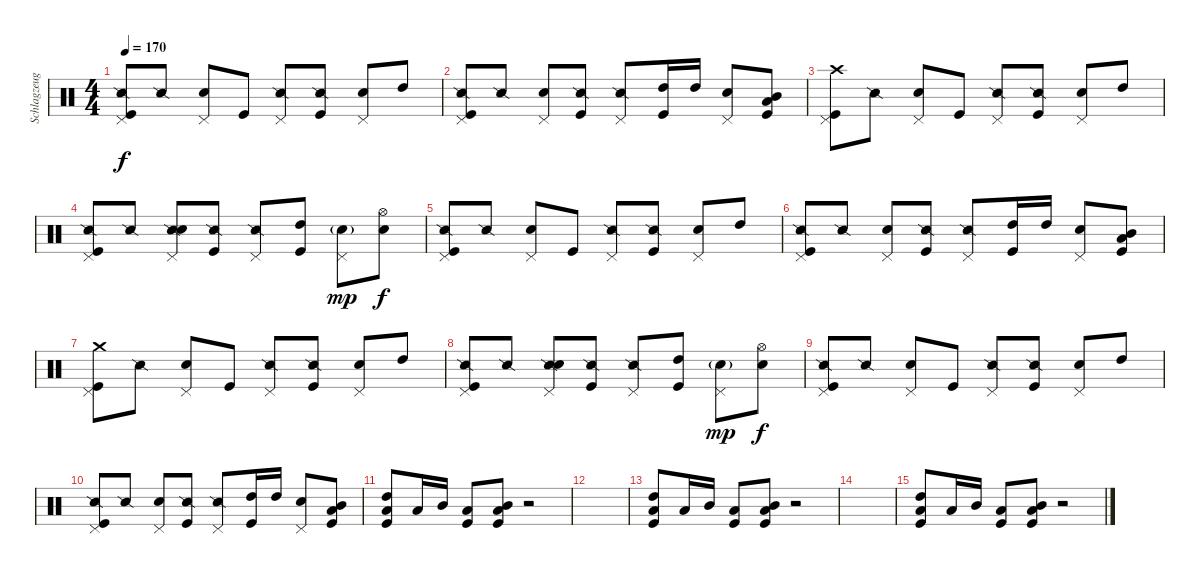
\track ("Schlagzeug" "Schlagzeug") {instrument percussion}
\staff {score}
\articulation defaults
\ts (4 4)
\tempo 170
\clef neutral
\ks c
("Snare (side stick) 2" "Pedal Hi-Hat (hit)" "Kick (hit)").8{dy f} "Snare (side stick) 2".8 ("Electric Snare (hit)" "Pedal Hi-Hat (hit)").8 "Kick (hit)".8 ("Snare (side stick) 2" "Pedal Hi-Hat (hit)").8 ("Snare (side stick) 2" "Kick (hit)").8 ("Electric Snare (hit)" "Pedal Hi-Hat (hit)").8 "High Tom (hit)".8 |
("Snare (side stick) 2" "Pedal Hi-Hat (hit)" "Kick (hit)").8 "Snare (side stick) 2".8 ("Electric Snare (hit)" "Pedal Hi-Hat (hit)").8 ("Snare (side stick) 2" "Kick (hit)").8 ("Snare (side stick) 2" "Pedal Hi-Hat (hit)").8 ("High Tom (hit)" "Kick (hit)").16 "High Tom (hit)".16 ("Electric Snare (hit)" "Pedal Hi-Hat (hit)").8 ("Mid Tom (hit)" "Low Tom (hit)" "Kick (hit)").8 |
("Crash high (hit)" "Pedal Hi-Hat (hit)" "Kick (hit)").8 "Snare (side stick) 2".8 ("Electric Snare (hit)" "Pedal Hi-Hat (hit)").8 "Kick (hit)".8 ("Snare (side stick) 2" "Pedal Hi-Hat (hit)").8 ("Snare (side stick) 2" "Kick (hit)").8 ("Electric Snare (hit)" "Pedal Hi-Hat (hit)").8 "High Tom (hit)".8 |
("Snare (side stick) 2" "Pedal Hi-Hat (hit)" "Kick (hit)").8 "Snare (side stick) 2".8 ("Snare (side stick) 2" "Electric Snare (hit)" "Pedal Hi-Hat (hit)").8 ("Snare (side stick) 2" "Kick (hit)").8 ("Snare (side stick) 2" "Pedal Hi-Hat (hit)").8 ("High Tom (hit)" "Kick (hit)").8 ("Electric Snare (hit)"{g} "Pedal Hi-Hat (hit)").8{dy mp} ("Hi-Hat (open)" "Electric Snare (hit)").8{dy f} |
("Snare (side stick) 2" "Pedal Hi-Hat (hit)" "Kick (hit)").8 "Snare (side stick) 2".8 ("Electric Snare (hit)" "Pedal Hi-Hat (hit)").8 "Kick (hit)".8 ("Snare (side stick) 2" "Pedal Hi-Hat (hit)").8 ("Snare (side stick) 2" "Kick (hit)").8 ("Electric Snare (hit)" "Pedal Hi-Hat (hit)").8 "High Tom (hit)".8 |
("Snare (side stick) 2" "Pedal Hi-Hat (hit)" "Kick (hit)").8 "Snare (side stick) 2".8 ("Electric Snare (hit)" "Pedal Hi-Hat (hit)").8 ("Snare (side stick) 2" "Kick (hit)").8 ("Snare (side stick) 2" "Pedal Hi-Hat (hit)").8 ("High Tom (hit)" "Kick (hit)").16 "High Tom (hit)".16 ("Electric Snare (hit)" "Pedal Hi-Hat (hit)").8 ("Mid Tom (hit)" "Low Tom (hit)" "Kick (hit)").8 |
("Crash medium (hit)" "Pedal Hi-Hat (hit)" "Kick (hit)").8 "Snare (side stick) 2".8 ("Electric Snare (hit)" "Pedal Hi-Hat (hit)").8 "Kick (hit)".8 ("Snare (side stick) 2" "Pedal Hi-Hat (hit)").8 ("Snare (side stick) 2" "Kick (hit)").8 ("Electric Snare (hit)" "Pedal Hi-Hat (hit)").8 "High Tom (hit)".8 |
("Snare (side stick) 2" "Pedal Hi-Hat (hit)" "Kick (hit)").8 "Snare (side stick) 2".8 ("Snare (side stick) 2" "Electric Snare (hit)" "Pedal Hi-Hat (hit)").8 ("Snare (side stick) 2" "Kick (hit)").8 ("Snare (side stick) 2" "Pedal Hi-Hat (hit)").8 ("High Tom (hit)" "Kick (hit)").8 ("Electric Snare (hit)"{g} "Pedal Hi-Hat (hit)").8{dy mp} ("Hi-Hat (open)" "Electric Snare (hit)").8{dy f} |
("Snare (side stick) 2" "Pedal Hi-Hat (hit)" "Kick (hit)").8 "Snare (side stick) 2".8 ("Electric Snare (hit)" "Pedal Hi-Hat (hit)").8 "Kick (hit)".8 ("Snare (side stick) 2" "Pedal Hi-Hat (hit)").8 ("Snare (side stick) 2" "Kick (hit)").8 ("Electric Snare (hit)" "Pedal Hi-Hat (hit)").8 "High Tom (hit)".8 |
("Snare (side stick) 2" "Pedal Hi-Hat (hit)" "Kick (hit)").8 "Snare (side stick) 2".8 ("Electric Snare (hit)" "Pedal Hi-Hat (hit)").8 ("Snare (side stick) 2" "Kick (hit)").8 ("Snare (side stick) 2" "Pedal Hi-Hat (hit)").8 ("High Tom (hit)" "Kick (hit)").16 "High Tom (hit)".16 ("Electric Snare (hit)" "Pedal Hi-Hat (hit)").8 ("Mid Tom (hit)" "Low Tom (hit)" "Kick (hit)").8 |
("High Tom (hit)" "Low Tom (hit)" "Kick (hit)").8 "Low Tom (hit)".16 "Mid Tom (hit)".16 ("Low Tom (hit)" "Kick (hit)").8 ("Mid Tom (hit)" "Low Tom (hit)" "Kick (hit)").8 r.2 |
|
("High Tom (hit)" "Low Tom (hit)" "Kick (hit)").8 "Low Tom (hit)".16 "Mid Tom (hit)".16 ("Low Tom (hit)" "Kick (hit)").8 ("Mid Tom (hit)" "Low Tom (hit)" "Kick (hit)").8 r.2 |
|
("High Tom (hit)" "Low Tom (hit)" "Kick (hit)").8 "Low Tom (hit)".16 "Mid Tom (hit)".16 ("Low Tom (hit)" "Kick (hit)").8 ("Mid Tom (hit)" "Low Tom (hit)" "Kick (hit)").8 r.2
